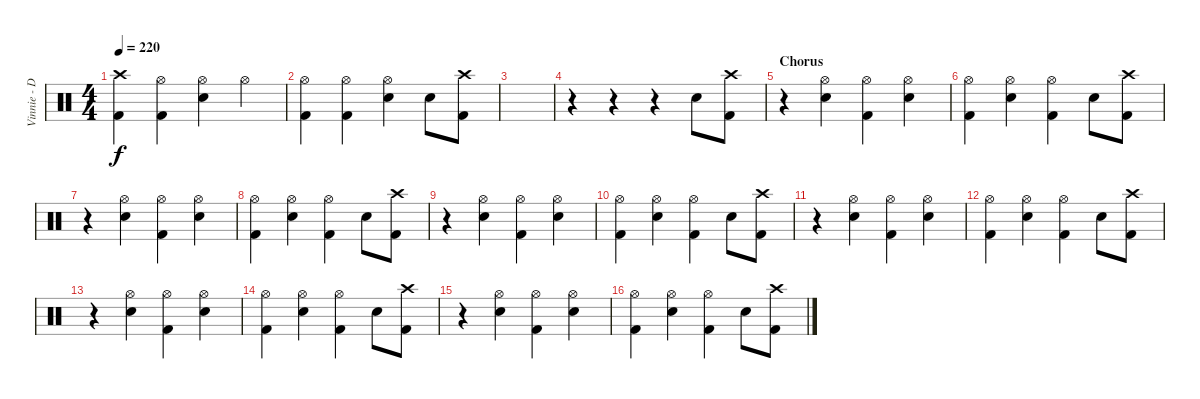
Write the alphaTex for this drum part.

\track ("Vinnie - Drums" "Vinnie - D") {instrument percussion}
\staff {score}
\articulation defaults
\ts (4 4)
\tempo 220
\clef neutral
\ks c
("Crash high (hit)" "Kick (hit) 2").4{dy f} ("Hi-Hat (open)" "Kick (hit) 2").4 ("Hi-Hat (open)" "Electric Snare (hit)").4 "Hi-Hat (open)".4 |
("Hi-Hat (open)" "Kick (hit) 2").4 ("Hi-Hat (open)" "Kick (hit) 2").4 ("Hi-Hat (open)" "Electric Snare (hit)").4 "Electric Snare (hit)".8 ("Crash high (hit)" "Kick (hit) 2").8 |
|
r.4 r.4 r.4 "Electric Snare (hit)".8 ("Crash high (hit)" "Kick (hit) 2").8 |
\section ("" "Chorus")
r.4 ("Hi-Hat (open)" "Electric Snare (hit)").4 ("Hi-Hat (open)" "Kick (hit) 2").4 ("Hi-Hat (open)" "Electric Snare (hit)").4 |
("Hi-Hat (open)" "Kick (hit) 2").4 ("Hi-Hat (open)" "Electric Snare (hit)").4 ("Hi-Hat (open)" "Kick (hit) 2").4 "Electric Snare (hit)".8 ("Crash high (hit)" "Kick (hit) 2").8 |
r.4 ("Hi-Hat (open)" "Electric Snare (hit)").4 ("Hi-Hat (open)" "Kick (hit) 2").4 ("Hi-Hat (open)" "Electric Snare (hit)").4 |
("Hi-Hat (open)" "Kick (hit) 2").4 ("Hi-Hat (open)" "Electric Snare (hit)").4 ("Hi-Hat (open)" "Kick (hit) 2").4 "Electric Snare (hit)".8 ("Crash high (hit)" "Kick (hit) 2").8 |
r.4 ("Hi-Hat (open)" "Electric Snare (hit)").4 ("Hi-Hat (open)" "Kick (hit) 2").4 ("Hi-Hat (open)" "Electric Snare (hit)").4 |
("Hi-Hat (open)" "Kick (hit) 2").4 ("Hi-Hat (open)" "Electric Snare (hit)").4 ("Hi-Hat (open)" "Kick (hit) 2").4 "Electric Snare (hit)".8 ("Crash high (hit)" "Kick (hit) 2").8 |
r.4 ("Hi-Hat (open)" "Electric Snare (hit)").4 ("Hi-Hat (open)" "Kick (hit) 2").4 ("Hi-Hat (open)" "Electric Snare (hit)").4 |
("Hi-Hat (open)" "Kick (hit) 2").4 ("Hi-Hat (open)" "Electric Snare (hit)").4 ("Hi-Hat (open)" "Kick (hit) 2").4 "Electric Snare (hit)".8 ("Crash high (hit)" "Kick (hit) 2").8 |
r.4 ("Hi-Hat (open)" "Electric Snare (hit)").4 ("Hi-Hat (open)" "Kick (hit) 2").4 ("Hi-Hat (open)" "Electric Snare (hit)").4 |
("Hi-Hat (open)" "Kick (hit) 2").4 ("Hi-Hat (open)" "Electric Snare (hit)").4 ("Hi-Hat (open)" "Kick (hit) 2").4 "Electric Snare (hit)".8 ("Crash high (hit)" "Kick (hit) 2").8 |
r.4 ("Hi-Hat (open)" "Electric Snare (hit)").4 ("Hi-Hat (open)" "Kick (hit) 2").4 ("Hi-Hat (open)" "Electric Snare (hit)").4 |
("Hi-Hat (open)" "Kick (hit) 2").4 ("Hi-Hat (open)" "Electric Snare (hit)").4 ("Hi-Hat (open)" "Kick (hit) 2").4 "Electric Snare (hit)".8 ("Crash high (hit)" "Kick (hit) 2").8
